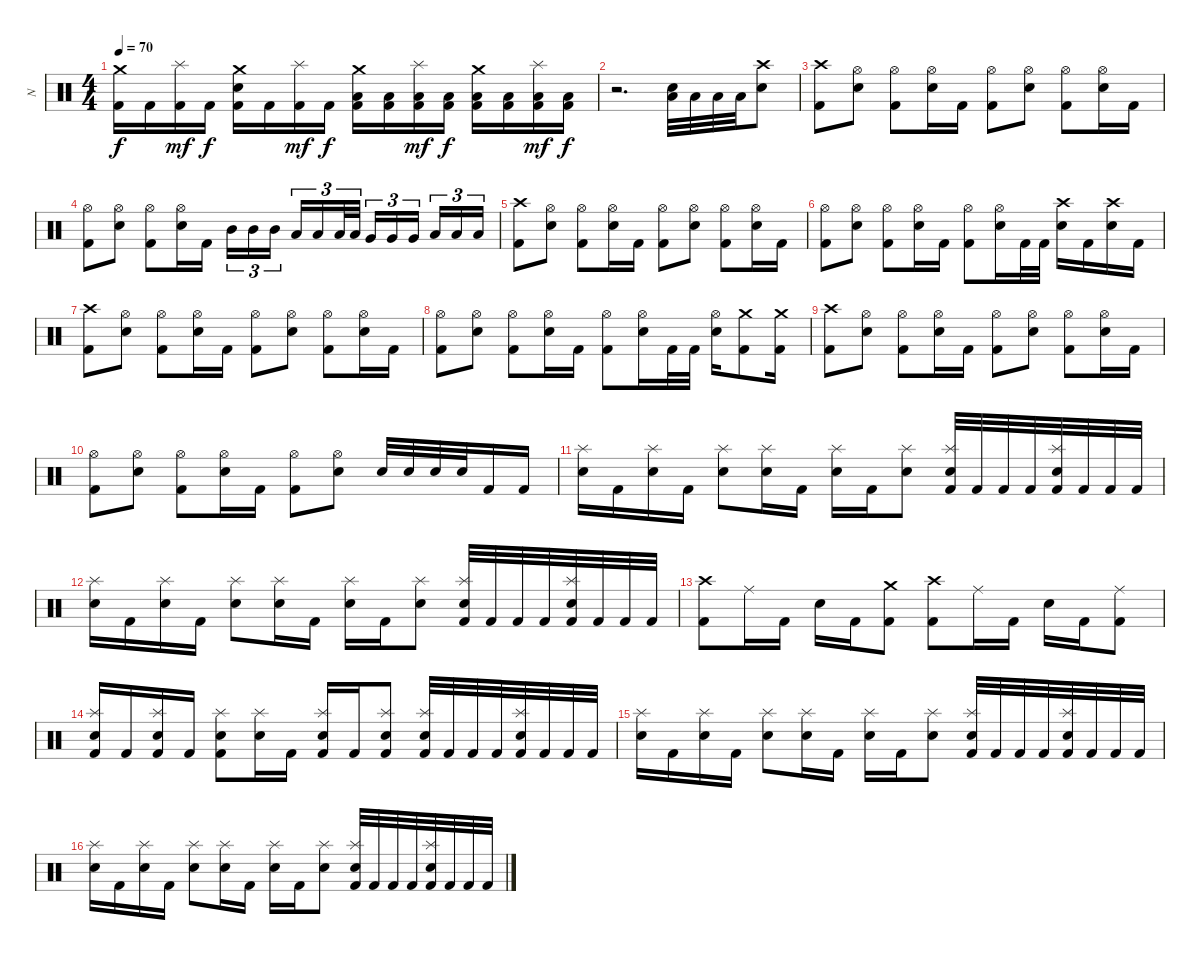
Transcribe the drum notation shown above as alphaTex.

\track ("N" "N") {instrument percussion}
\staff {score}
\articulation defaults
\ts (4 4)
\tempo 70
\clef neutral
\ks c
("Crash medium (hit)" "Kick (hit) 2").16{dy f} "Kick (hit) 2".16 ("Splash (hit)" "Kick (hit) 2").16{dy mf} "Kick (hit) 2".16{dy f} ("Crash medium (hit)" "Electric Snare (hit)" "Kick (hit) 2").16 "Kick (hit) 2".16 ("Splash (hit)" "Kick (hit) 2").16{dy mf} "Kick (hit) 2".16{dy f} ("Crash medium (hit)" "Low Tom (hit)" "Kick (hit) 2").16 ("Low Tom (hit)" "Kick (hit) 2").16 ("Splash (hit)" "Low Tom (hit)" "Kick (hit) 2").16{dy mf} ("Low Tom (hit)" "Kick (hit) 2").16{dy f} ("Crash medium (hit)" "Low Tom (hit)" "Kick (hit) 2").16 ("Low Tom (hit)" "Kick (hit) 2").16 ("Splash (hit)" "Low Tom (hit)" "Kick (hit) 2").16{dy mf} ("Low Tom (hit)" "Kick (hit) 2").16{dy f} |
\section ("" " ")
r.2{d} ("Low Tom (hit)" "Electric Snare (hit)").32 "Low Tom (hit)".32 "Low Tom (hit)".32 "Low Tom (hit)".32 ("Crash high (hit)" "Electric Snare (hit)").8 |
("Crash high (hit)" "Kick (hit) 2").8 ("Hi-Hat (open)" "Electric Snare (hit)").8 ("Hi-Hat (open)" "Kick (hit) 2").8 ("Hi-Hat (open)" "Electric Snare (hit)").16 "Kick (hit) 2".16 ("Hi-Hat (open)" "Kick (hit) 2").8 ("Hi-Hat (open)" "Electric Snare (hit)").8 ("Hi-Hat (open)" "Kick (hit) 2").8 ("Hi-Hat (open)" "Electric Snare (hit)").16 "Kick (hit) 2".16 |
("Hi-Hat (open)" "Kick (hit) 2").8 ("Hi-Hat (open)" "Electric Snare (hit)").8 ("Hi-Hat (open)" "Kick (hit) 2").8 ("Hi-Hat (open)" "Electric Snare (hit)").16 "Kick (hit) 2".16 "Mid Tom (hit)".16{tu (3 2)} "Mid Tom (hit)".16{tu (3 2)} "Mid Tom (hit)".16{tu (3 2)} "Low Tom (hit)".16{tu (3 2)} "Low Tom (hit)".16{tu (3 2)} "Low Tom (hit)".32{tu (3 2)} "Low Tom (hit)".32{tu (3 2)} "Very Low Tom (hit)".16{tu (3 2)} "Very Low Tom (hit)".16{tu (3 2)} "Very Low Tom (hit)".16{tu (3 2)} "Low Floor Tom (hit)".16{tu (3 2)} "Low Floor Tom (hit)".16{tu (3 2)} "Low Floor Tom (hit)".16{tu (3 2)} |
("Crash high (hit)" "Kick (hit) 2").8 ("Hi-Hat (open)" "Electric Snare (hit)").8 ("Hi-Hat (open)" "Kick (hit) 2").8 ("Hi-Hat (open)" "Electric Snare (hit)").16 "Kick (hit) 2".16 ("Hi-Hat (open)" "Kick (hit) 2").8 ("Hi-Hat (open)" "Electric Snare (hit)").8 ("Hi-Hat (open)" "Kick (hit) 2").8 ("Hi-Hat (open)" "Electric Snare (hit)").16 "Kick (hit) 2".16 |
("Hi-Hat (open)" "Kick (hit) 2").8 ("Hi-Hat (open)" "Electric Snare (hit)").8 ("Hi-Hat (open)" "Kick (hit) 2").8 ("Hi-Hat (open)" "Electric Snare (hit)").16 "Kick (hit) 2".16 ("Hi-Hat (open)" "Kick (hit) 2").8 ("Hi-Hat (open)" "Electric Snare (hit)").16 "Kick (hit) 2".32 "Kick (hit) 2".32 ("Crash high (hit)" "Electric Snare (hit)").16 "Kick (hit) 2".16 ("Crash high (hit)" "Electric Snare (hit)").16 "Kick (hit) 2".16 |
("Crash high (hit)" "Kick (hit) 2").8 ("Hi-Hat (open)" "Electric Snare (hit)").8 ("Hi-Hat (open)" "Kick (hit) 2").8 ("Hi-Hat (open)" "Electric Snare (hit)").16 "Kick (hit) 2".16 ("Hi-Hat (open)" "Kick (hit) 2").8 ("Hi-Hat (open)" "Electric Snare (hit)").8 ("Hi-Hat (open)" "Kick (hit) 2").8 ("Hi-Hat (open)" "Electric Snare (hit)").16 "Kick (hit) 2".16 |
("Hi-Hat (open)" "Kick (hit) 2").8 ("Hi-Hat (open)" "Electric Snare (hit)").8 ("Hi-Hat (open)" "Kick (hit) 2").8 ("Hi-Hat (open)" "Electric Snare (hit)").16 "Kick (hit) 2".16 ("Hi-Hat (open)" "Kick (hit) 2").8 ("Hi-Hat (open)" "Electric Snare (hit)").16 "Kick (hit) 2".32 "Kick (hit) 2".32 ("Hi-Hat (open)" "Electric Snare (hit)").16 ("Crash medium (hit)" "Kick (hit) 2").8 ("Crash medium (hit)" "Kick (hit) 2").16 |
("Crash high (hit)" "Kick (hit) 2").8 ("Hi-Hat (open)" "Electric Snare (hit)").8 ("Hi-Hat (open)" "Kick (hit) 2").8 ("Hi-Hat (open)" "Electric Snare (hit)").16 "Kick (hit) 2".16 ("Hi-Hat (open)" "Kick (hit) 2").8 ("Hi-Hat (open)" "Electric Snare (hit)").8 ("Hi-Hat (open)" "Kick (hit) 2").8 ("Hi-Hat (open)" "Electric Snare (hit)").16 "Kick (hit) 2".16 |
("Hi-Hat (open)" "Kick (hit) 2").8 ("Hi-Hat (open)" "Electric Snare (hit)").8 ("Hi-Hat (open)" "Kick (hit) 2").8 ("Hi-Hat (open)" "Electric Snare (hit)").16 "Kick (hit) 2".16 ("Hi-Hat (open)" "Kick (hit) 2").8 ("Hi-Hat (open)" "Electric Snare (hit)").8 "Electric Snare (hit)".32 "Electric Snare (hit)".32 "Electric Snare (hit)".32 "Electric Snare (hit)".32 "Kick (hit) 2".16 "Kick (hit) 2".16 |
\section ("" " ")
("Splash (hit)" "Electric Snare (hit)").16 "Kick (hit) 2".16 ("Splash (hit)" "Electric Snare (hit)").16 "Kick (hit) 2".16 ("Splash (hit)" "Electric Snare (hit)").8 ("Splash (hit)" "Electric Snare (hit)").16 "Kick (hit) 2".16 ("Splash (hit)" "Electric Snare (hit)").16 "Kick (hit) 2".16 ("Splash (hit)" "Electric Snare (hit)").8 ("Splash (hit)" "Electric Snare (hit)" "Kick (hit) 2").32 "Kick (hit) 2".32 "Kick (hit) 2".32 "Kick (hit) 2".32 ("Splash (hit)" "Electric Snare (hit)" "Kick (hit) 2").32 "Kick (hit) 2".32 "Kick (hit) 2".32 "Kick (hit) 2".32 |
("Splash (hit)" "Electric Snare (hit)").16 "Kick (hit) 2".16 ("Splash (hit)" "Electric Snare (hit)").16 "Kick (hit) 2".16 ("Splash (hit)" "Electric Snare (hit)").8 ("Splash (hit)" "Electric Snare (hit)").16 "Kick (hit) 2".16 ("Splash (hit)" "Electric Snare (hit)").16 "Kick (hit) 2".16 ("Splash (hit)" "Electric Snare (hit)").8 ("Splash (hit)" "Electric Snare (hit)" "Kick (hit) 2").32 "Kick (hit) 2".32 "Kick (hit) 2".32 "Kick (hit) 2".32 ("Splash (hit)" "Electric Snare (hit)" "Kick (hit) 2").32 "Kick (hit) 2".32 "Kick (hit) 2".32 "Kick (hit) 2".32 |
("Crash high (hit)" "Kick (hit) 2").8 "Ride (middle)".16 "Kick (hit) 2".16 "Electric Snare (hit)".16 "Kick (hit) 2".16 ("Crash medium (hit)" "Kick (hit) 2").8 ("Crash high (hit)" "Kick (hit) 2").8 "Ride (middle)".16 "Kick (hit) 2".16 "Electric Snare (hit)".16 "Kick (hit) 2".16 ("Ride (middle)" "Kick (hit) 2").8 |
("Splash (hit)" "Electric Snare (hit)" "Kick (hit) 2").16 "Kick (hit) 2".16 ("Splash (hit)" "Electric Snare (hit)" "Kick (hit) 2").16 "Kick (hit) 2".16 ("Splash (hit)" "Electric Snare (hit)" "Kick (hit) 2").8 ("Splash (hit)" "Electric Snare (hit)").16 "Kick (hit) 2".16 ("Splash (hit)" "Electric Snare (hit)" "Kick (hit) 2").16 "Kick (hit) 2".16 ("Splash (hit)" "Electric Snare (hit)" "Kick (hit) 2").8 ("Splash (hit)" "Electric Snare (hit)" "Kick (hit) 2").32 "Kick (hit) 2".32 "Kick (hit) 2".32 "Kick (hit) 2".32 ("Splash (hit)" "Electric Snare (hit)" "Kick (hit) 2").32 "Kick (hit) 2".32 "Kick (hit) 2".32 "Kick (hit) 2".32 |
("Splash (hit)" "Electric Snare (hit)").16 "Kick (hit) 2".16 ("Splash (hit)" "Electric Snare (hit)").16 "Kick (hit) 2".16 ("Splash (hit)" "Electric Snare (hit)").8 ("Splash (hit)" "Electric Snare (hit)").16 "Kick (hit) 2".16 ("Splash (hit)" "Electric Snare (hit)").16 "Kick (hit) 2".16 ("Splash (hit)" "Electric Snare (hit)").8 ("Splash (hit)" "Electric Snare (hit)" "Kick (hit) 2").32 "Kick (hit) 2".32 "Kick (hit) 2".32 "Kick (hit) 2".32 ("Splash (hit)" "Electric Snare (hit)" "Kick (hit) 2").32 "Kick (hit) 2".32 "Kick (hit) 2".32 "Kick (hit) 2".32 |
("Splash (hit)" "Electric Snare (hit)").16 "Kick (hit) 2".16 ("Splash (hit)" "Electric Snare (hit)").16 "Kick (hit) 2".16 ("Splash (hit)" "Electric Snare (hit)").8 ("Splash (hit)" "Electric Snare (hit)").16 "Kick (hit) 2".16 ("Splash (hit)" "Electric Snare (hit)").16 "Kick (hit) 2".16 ("Splash (hit)" "Electric Snare (hit)").8 ("Splash (hit)" "Electric Snare (hit)" "Kick (hit) 2").32 "Kick (hit) 2".32 "Kick (hit) 2".32 "Kick (hit) 2".32 ("Splash (hit)" "Electric Snare (hit)" "Kick (hit) 2").32 "Kick (hit) 2".32 "Kick (hit) 2".32 "Kick (hit) 2".32
